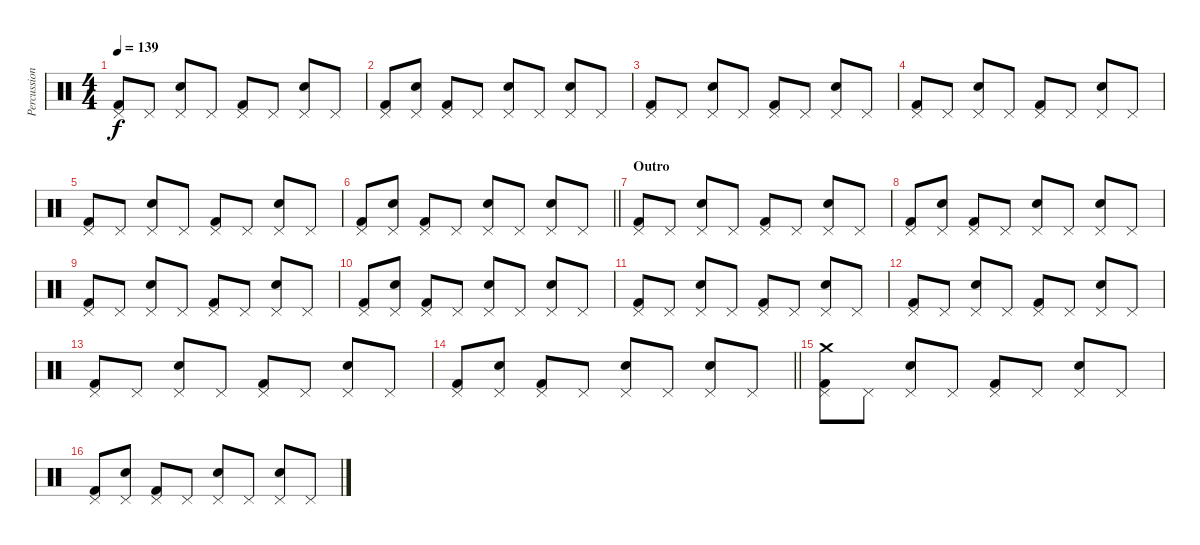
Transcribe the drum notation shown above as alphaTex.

\track ("Percussion" "Percussion") {instrument percussion}
\staff {score}
\articulation defaults
\ts (4 4)
\tempo 139
\clef neutral
\ks c
("Kick (hit) 2" "Pedal Hi-Hat (hit)").8{dy f} "Pedal Hi-Hat (hit)".8 ("Snare (hit) 2" "Pedal Hi-Hat (hit)").8 "Pedal Hi-Hat (hit)".8 ("Kick (hit) 2" "Pedal Hi-Hat (hit)").8 "Pedal Hi-Hat (hit)".8 ("Snare (hit) 2" "Pedal Hi-Hat (hit)").8 "Pedal Hi-Hat (hit)".8 |
("Kick (hit) 2" "Pedal Hi-Hat (hit)").8 ("Snare (hit) 2" "Pedal Hi-Hat (hit)").8 ("Kick (hit) 2" "Pedal Hi-Hat (hit)").8 "Pedal Hi-Hat (hit)".8 ("Snare (hit) 2" "Pedal Hi-Hat (hit)").8 "Pedal Hi-Hat (hit)".8 ("Snare (hit) 2" "Pedal Hi-Hat (hit)").8 "Pedal Hi-Hat (hit)".8 |
("Kick (hit) 2" "Pedal Hi-Hat (hit)").8 "Pedal Hi-Hat (hit)".8 ("Snare (hit) 2" "Pedal Hi-Hat (hit)").8 "Pedal Hi-Hat (hit)".8 ("Kick (hit) 2" "Pedal Hi-Hat (hit)").8 "Pedal Hi-Hat (hit)".8 ("Snare (hit) 2" "Pedal Hi-Hat (hit)").8 "Pedal Hi-Hat (hit)".8 |
("Kick (hit) 2" "Pedal Hi-Hat (hit)").8 "Pedal Hi-Hat (hit)".8 ("Snare (hit) 2" "Pedal Hi-Hat (hit)").8 "Pedal Hi-Hat (hit)".8 ("Kick (hit) 2" "Pedal Hi-Hat (hit)").8 "Pedal Hi-Hat (hit)".8 ("Snare (hit) 2" "Pedal Hi-Hat (hit)").8 "Pedal Hi-Hat (hit)".8 |
("Kick (hit) 2" "Pedal Hi-Hat (hit)").8 "Pedal Hi-Hat (hit)".8 ("Snare (hit) 2" "Pedal Hi-Hat (hit)").8 "Pedal Hi-Hat (hit)".8 ("Kick (hit) 2" "Pedal Hi-Hat (hit)").8 "Pedal Hi-Hat (hit)".8 ("Snare (hit) 2" "Pedal Hi-Hat (hit)").8 "Pedal Hi-Hat (hit)".8 |
\barLineRight lightlight
("Kick (hit) 2" "Pedal Hi-Hat (hit)").8 ("Snare (hit) 2" "Pedal Hi-Hat (hit)").8 ("Kick (hit) 2" "Pedal Hi-Hat (hit)").8 "Pedal Hi-Hat (hit)".8 ("Snare (hit) 2" "Pedal Hi-Hat (hit)").8 "Pedal Hi-Hat (hit)".8 ("Snare (hit) 2" "Pedal Hi-Hat (hit)").8 "Pedal Hi-Hat (hit)".8 |
\section ("" "Outro")
("Kick (hit) 2" "Pedal Hi-Hat (hit)").8 "Pedal Hi-Hat (hit)".8 ("Snare (hit) 2" "Pedal Hi-Hat (hit)").8 "Pedal Hi-Hat (hit)".8 ("Kick (hit) 2" "Pedal Hi-Hat (hit)").8 "Pedal Hi-Hat (hit)".8 ("Snare (hit) 2" "Pedal Hi-Hat (hit)").8 "Pedal Hi-Hat (hit)".8 |
("Kick (hit) 2" "Pedal Hi-Hat (hit)").8 ("Snare (hit) 2" "Pedal Hi-Hat (hit)").8 ("Kick (hit) 2" "Pedal Hi-Hat (hit)").8 "Pedal Hi-Hat (hit)".8 ("Snare (hit) 2" "Pedal Hi-Hat (hit)").8 "Pedal Hi-Hat (hit)".8 ("Snare (hit) 2" "Pedal Hi-Hat (hit)").8 "Pedal Hi-Hat (hit)".8 |
("Kick (hit) 2" "Pedal Hi-Hat (hit)").8 "Pedal Hi-Hat (hit)".8 ("Snare (hit) 2" "Pedal Hi-Hat (hit)").8 "Pedal Hi-Hat (hit)".8 ("Kick (hit) 2" "Pedal Hi-Hat (hit)").8 "Pedal Hi-Hat (hit)".8 ("Snare (hit) 2" "Pedal Hi-Hat (hit)").8 "Pedal Hi-Hat (hit)".8 |
("Kick (hit) 2" "Pedal Hi-Hat (hit)").8 ("Snare (hit) 2" "Pedal Hi-Hat (hit)").8 ("Kick (hit) 2" "Pedal Hi-Hat (hit)").8 "Pedal Hi-Hat (hit)".8 ("Snare (hit) 2" "Pedal Hi-Hat (hit)").8 "Pedal Hi-Hat (hit)".8 ("Snare (hit) 2" "Pedal Hi-Hat (hit)").8 "Pedal Hi-Hat (hit)".8 |
("Kick (hit) 2" "Pedal Hi-Hat (hit)").8 "Pedal Hi-Hat (hit)".8 ("Snare (hit) 2" "Pedal Hi-Hat (hit)").8 "Pedal Hi-Hat (hit)".8 ("Kick (hit) 2" "Pedal Hi-Hat (hit)").8 "Pedal Hi-Hat (hit)".8 ("Snare (hit) 2" "Pedal Hi-Hat (hit)").8 "Pedal Hi-Hat (hit)".8 |
("Kick (hit) 2" "Pedal Hi-Hat (hit)").8 "Pedal Hi-Hat (hit)".8 ("Snare (hit) 2" "Pedal Hi-Hat (hit)").8 "Pedal Hi-Hat (hit)".8 ("Kick (hit) 2" "Pedal Hi-Hat (hit)").8 "Pedal Hi-Hat (hit)".8 ("Snare (hit) 2" "Pedal Hi-Hat (hit)").8 "Pedal Hi-Hat (hit)".8 |
("Kick (hit) 2" "Pedal Hi-Hat (hit)").8 "Pedal Hi-Hat (hit)".8 ("Snare (hit) 2" "Pedal Hi-Hat (hit)").8 "Pedal Hi-Hat (hit)".8 ("Kick (hit) 2" "Pedal Hi-Hat (hit)").8 "Pedal Hi-Hat (hit)".8 ("Snare (hit) 2" "Pedal Hi-Hat (hit)").8 "Pedal Hi-Hat (hit)".8 |
\barLineRight lightlight
("Kick (hit) 2" "Pedal Hi-Hat (hit)").8 ("Snare (hit) 2" "Pedal Hi-Hat (hit)").8 ("Kick (hit) 2" "Pedal Hi-Hat (hit)").8 "Pedal Hi-Hat (hit)".8 ("Snare (hit) 2" "Pedal Hi-Hat (hit)").8 "Pedal Hi-Hat (hit)".8 ("Snare (hit) 2" "Pedal Hi-Hat (hit)").8 "Pedal Hi-Hat (hit)".8 |
("Crash medium (hit)" "Kick (hit) 2" "Pedal Hi-Hat (hit)").8 "Pedal Hi-Hat (hit)".8 ("Snare (hit) 2" "Pedal Hi-Hat (hit)").8 "Pedal Hi-Hat (hit)".8 ("Kick (hit) 2" "Pedal Hi-Hat (hit)").8 "Pedal Hi-Hat (hit)".8 ("Snare (hit) 2" "Pedal Hi-Hat (hit)").8 "Pedal Hi-Hat (hit)".8 |
("Kick (hit) 2" "Pedal Hi-Hat (hit)").8 ("Snare (hit) 2" "Pedal Hi-Hat (hit)").8 ("Kick (hit) 2" "Pedal Hi-Hat (hit)").8 "Pedal Hi-Hat (hit)".8 ("Snare (hit) 2" "Pedal Hi-Hat (hit)").8 "Pedal Hi-Hat (hit)".8 ("Snare (hit) 2" "Pedal Hi-Hat (hit)").8 "Pedal Hi-Hat (hit)".8
